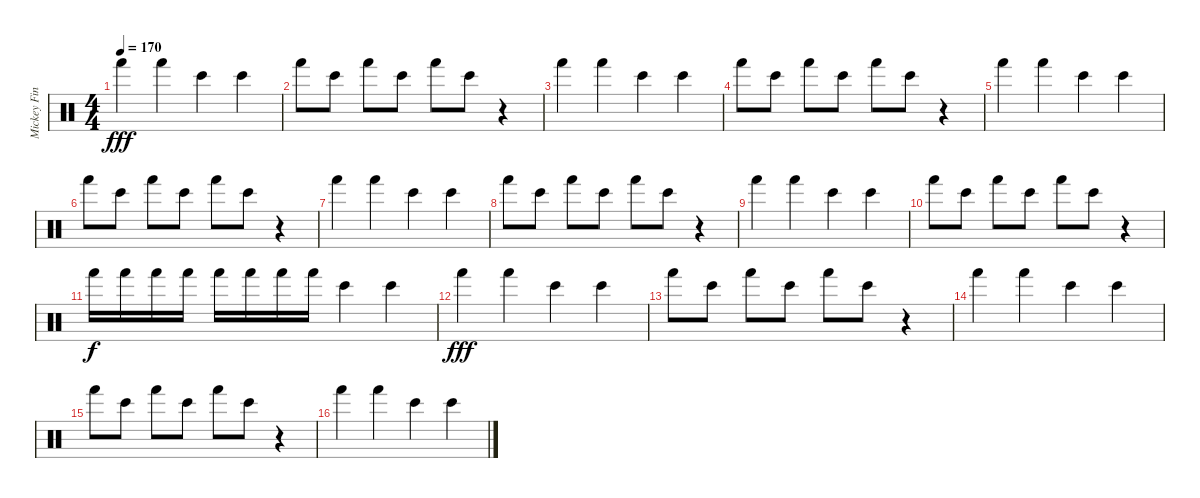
\track ("Mickey Finn" "Mickey Fin") {instrument percussion}
\staff {score}
\articulation defaults
\ts (4 4)
\tempo 170
\clef neutral
\ks c "Hand (hit)".4{dy fff} "Hand (hit)".4 "Bongo High (hit)".4 "Bongo High (hit)".4
|
"Hand (hit)".8 "Bongo High (hit)".8 "Hand (hit)".8 "Bongo High (hit)".8 "Hand (hit)".8 "Bongo High (hit)".8 r.4 |
"Hand (hit)".4 "Hand (hit)".4 "Bongo High (hit)".4 "Bongo High (hit)".4 |
"Hand (hit)".8 "Bongo High (hit)".8 "Hand (hit)".8 "Bongo High (hit)".8 "Hand (hit)".8 "Bongo High (hit)".8 r.4 |
"Hand (hit)".4 "Hand (hit)".4 "Bongo High (hit)".4 "Bongo High (hit)".4 |
"Hand (hit)".8 "Bongo High (hit)".8 "Hand (hit)".8 "Bongo High (hit)".8 "Hand (hit)".8 "Bongo High (hit)".8 r.4 |
"Hand (hit)".4 "Hand (hit)".4 "Bongo High (hit)".4 "Bongo High (hit)".4 |
"Hand (hit)".8 "Bongo High (hit)".8 "Hand (hit)".8 "Bongo High (hit)".8 "Hand (hit)".8 "Bongo High (hit)".8 r.4 |
"Hand (hit)".4 "Hand (hit)".4 "Bongo High (hit)".4 "Bongo High (hit)".4 |
"Hand (hit)".8 "Bongo High (hit)".8 "Hand (hit)".8 "Bongo High (hit)".8 "Hand (hit)".8 "Bongo High (hit)".8 r.4 |
"Hand (hit)".16{dy f} "Hand (hit)".16 "Hand (hit)".16 "Hand (hit)".16 "Hand (hit)".16 "Hand (hit)".16 "Hand (hit)".16 "Hand (hit)".16 "Bongo High (hit)".4 "Bongo High (hit)".4 |
"Hand (hit)".4{dy fff} "Hand (hit)".4 "Bongo High (hit)".4 "Bongo High (hit)".4 |
"Hand (hit)".8 "Bongo High (hit)".8 "Hand (hit)".8 "Bongo High (hit)".8 "Hand (hit)".8 "Bongo High (hit)".8 r.4 |
"Hand (hit)".4 "Hand (hit)".4 "Bongo High (hit)".4 "Bongo High (hit)".4 |
"Hand (hit)".8 "Bongo High (hit)".8 "Hand (hit)".8 "Bongo High (hit)".8 "Hand (hit)".8 "Bongo High (hit)".8 r.4 |
"Hand (hit)".4 "Hand (hit)".4 "Bongo High (hit)".4 "Bongo High (hit)".4
